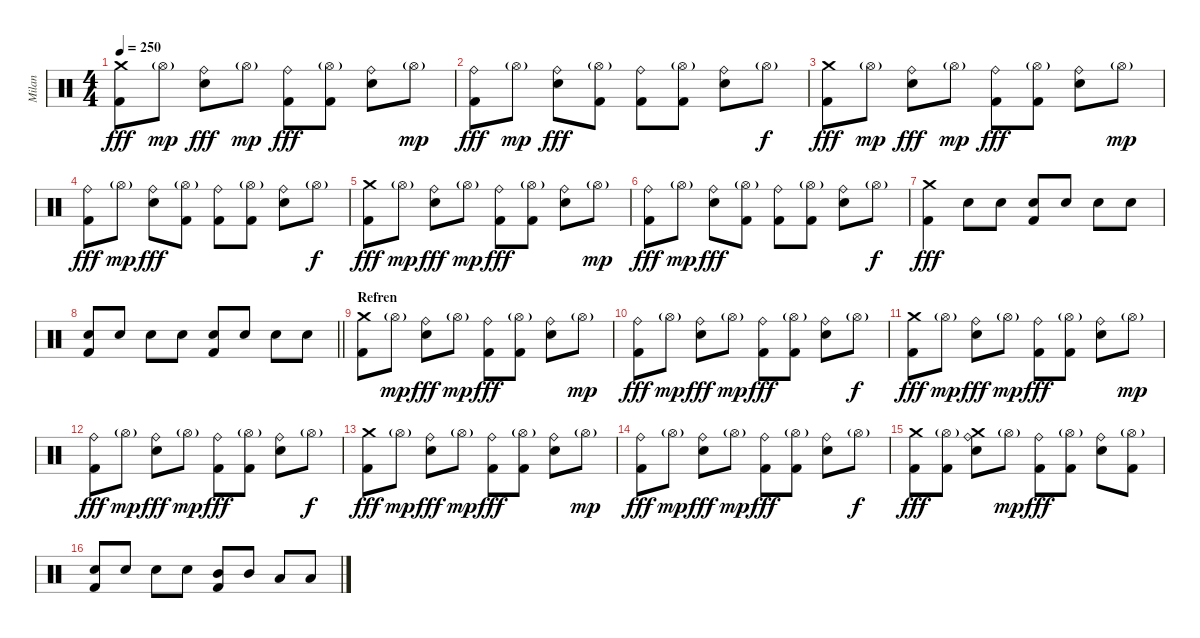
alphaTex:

\track ("Milan" "Milan") {instrument percussion}
\staff {score}
\articulation defaults
\ts (4 4)
\tempo 250
\clef neutral
\ks c
("Crash medium (hit)" "Kick (hit) 2").8{dy fff} "Hi-Hat (open)"{g}.8{dy mp} ("Ride (bell)" "Snare (hit) 2").8{dy fff} "Hi-Hat (open)"{g}.8{dy mp} ("Ride (bell)" "Kick (hit) 2").8{dy fff} ("Hi-Hat (open)"{g} "Kick (hit) 2").8 ("Ride (bell)" "Snare (hit) 2").8 "Hi-Hat (open)"{g}.8{dy mp} |
("Ride (bell)" "Kick (hit) 2").8{dy fff} "Hi-Hat (open)"{g}.8{dy mp} ("Ride (bell)" "Snare (hit) 2").8{dy fff} ("Hi-Hat (open)"{g} "Kick (hit) 2").8 ("Ride (bell)" "Kick (hit) 2").8 ("Hi-Hat (open)"{g} "Kick (hit) 2").8 ("Ride (bell)" "Snare (hit) 2").8 "Hi-Hat (open)"{g}.8{dy f} |
("Crash medium (hit)" "Kick (hit) 2").8{dy fff} "Hi-Hat (open)"{g}.8{dy mp} ("Ride (bell)" "Snare (hit) 2").8{dy fff} "Hi-Hat (open)"{g}.8{dy mp} ("Ride (bell)" "Kick (hit) 2").8{dy fff} ("Hi-Hat (open)"{g} "Kick (hit) 2").8 ("Ride (bell)" "Snare (hit) 2").8 "Hi-Hat (open)"{g}.8{dy mp} |
("Ride (bell)" "Kick (hit) 2").8{dy fff} "Hi-Hat (open)"{g}.8{dy mp} ("Ride (bell)" "Snare (hit) 2").8{dy fff} ("Hi-Hat (open)"{g} "Kick (hit) 2").8 ("Ride (bell)" "Kick (hit) 2").8 ("Hi-Hat (open)"{g} "Kick (hit) 2").8 ("Ride (bell)" "Snare (hit) 2").8 "Hi-Hat (open)"{g}.8{dy f} |
("Crash medium (hit)" "Kick (hit) 2").8{dy fff} "Hi-Hat (open)"{g}.8{dy mp} ("Ride (bell)" "Snare (hit) 2").8{dy fff} "Hi-Hat (open)"{g}.8{dy mp} ("Ride (bell)" "Kick (hit) 2").8{dy fff} ("Hi-Hat (open)"{g} "Kick (hit) 2").8 ("Ride (bell)" "Snare (hit) 2").8 "Hi-Hat (open)"{g}.8{dy mp} |
("Ride (bell)" "Kick (hit) 2").8{dy fff} "Hi-Hat (open)"{g}.8{dy mp} ("Ride (bell)" "Snare (hit) 2").8{dy fff} ("Hi-Hat (open)"{g} "Kick (hit) 2").8 ("Ride (bell)" "Kick (hit) 2").8 ("Hi-Hat (open)"{g} "Kick (hit) 2").8 ("Ride (bell)" "Snare (hit) 2").8 "Hi-Hat (open)"{g}.8{dy f} |
("Crash medium (hit)" "Kick (hit) 2").4{dy fff} "Snare (hit) 2".8 "Snare (hit) 2".8 ("Snare (hit) 2" "Kick (hit) 2").8 "Snare (hit) 2".8 "Snare (hit) 2".8 "Snare (hit) 2".8 |
\barLineRight lightlight
("Snare (hit) 2" "Kick (hit) 2").8 "Snare (hit) 2".8 "Snare (hit) 2".8 "Snare (hit) 2".8 ("Snare (hit) 2" "Kick (hit) 2").8 "Snare (hit) 2".8 "Snare (hit) 2".8 "Snare (hit) 2".8 |
\section ("" "Refren")
("Crash medium (hit)" "Kick (hit) 2").8 "Hi-Hat (open)"{g}.8{dy mp} ("Ride (bell)" "Snare (hit) 2").8{dy fff} "Hi-Hat (open)"{g}.8{dy mp} ("Ride (bell)" "Kick (hit) 2").8{dy fff} ("Hi-Hat (open)"{g} "Kick (hit) 2").8 ("Ride (bell)" "Snare (hit) 2").8 "Hi-Hat (open)"{g}.8{dy mp} |
("Ride (bell)" "Kick (hit) 2").8{dy fff} "Hi-Hat (open)"{g}.8{dy mp} ("Ride (bell)" "Snare (hit) 2").8{dy fff} "Hi-Hat (open)"{g}.8{dy mp} ("Ride (bell)" "Kick (hit) 2").8{dy fff} ("Hi-Hat (open)"{g} "Kick (hit) 2").8 ("Ride (bell)" "Snare (hit) 2").8 "Hi-Hat (open)"{g}.8{dy f} |
("Crash medium (hit)" "Kick (hit) 2").8{dy fff} "Hi-Hat (open)"{g}.8{dy mp} ("Ride (bell)" "Snare (hit) 2").8{dy fff} "Hi-Hat (open)"{g}.8{dy mp} ("Ride (bell)" "Kick (hit) 2").8{dy fff} ("Hi-Hat (open)"{g} "Kick (hit) 2").8 ("Ride (bell)" "Snare (hit) 2").8 "Hi-Hat (open)"{g}.8{dy mp} |
("Ride (bell)" "Kick (hit) 2").8{dy fff} "Hi-Hat (open)"{g}.8{dy mp} ("Ride (bell)" "Snare (hit) 2").8{dy fff} "Hi-Hat (open)"{g}.8{dy mp} ("Ride (bell)" "Kick (hit) 2").8{dy fff} ("Hi-Hat (open)"{g} "Kick (hit) 2").8 ("Ride (bell)" "Snare (hit) 2").8 "Hi-Hat (open)"{g}.8{dy f} |
("Crash medium (hit)" "Kick (hit) 2").8{dy fff} "Hi-Hat (open)"{g}.8{dy mp} ("Ride (bell)" "Snare (hit) 2").8{dy fff} "Hi-Hat (open)"{g}.8{dy mp} ("Ride (bell)" "Kick (hit) 2").8{dy fff} ("Hi-Hat (open)"{g} "Kick (hit) 2").8 ("Ride (bell)" "Snare (hit) 2").8 "Hi-Hat (open)"{g}.8{dy mp} |
("Ride (bell)" "Kick (hit) 2").8{dy fff} "Hi-Hat (open)"{g}.8{dy mp} ("Ride (bell)" "Snare (hit) 2").8{dy fff} "Hi-Hat (open)"{g}.8{dy mp} ("Ride (bell)" "Kick (hit) 2").8{dy fff} ("Hi-Hat (open)"{g} "Kick (hit) 2").8 ("Ride (bell)" "Snare (hit) 2").8 "Hi-Hat (open)"{g}.8{dy f} |
("Crash medium (hit)" "Kick (hit) 2").8{dy fff} ("Hi-Hat (open)"{g} "Kick (hit) 2").8 ("Crash medium (hit)" "Ride (bell)" "Snare (hit) 2").8 "Hi-Hat (open)"{g}.8{dy mp} ("Ride (bell)" "Kick (hit) 2").8{dy fff} ("Hi-Hat (open)"{g} "Kick (hit) 2").8 ("Ride (bell)" "Snare (hit) 2").8 ("Hi-Hat (open)"{g} "Kick (hit) 2").8 |
("Snare (hit) 2" "Kick (hit) 2").8 "Snare (hit) 2".8 "Snare (hit) 2".8 "Snare (hit) 2".8 ("Mid Tom (hit)" "Kick (hit) 2").8 "Mid Tom (hit)".8 "Low Tom (hit)".8 "Low Tom (hit)".8
